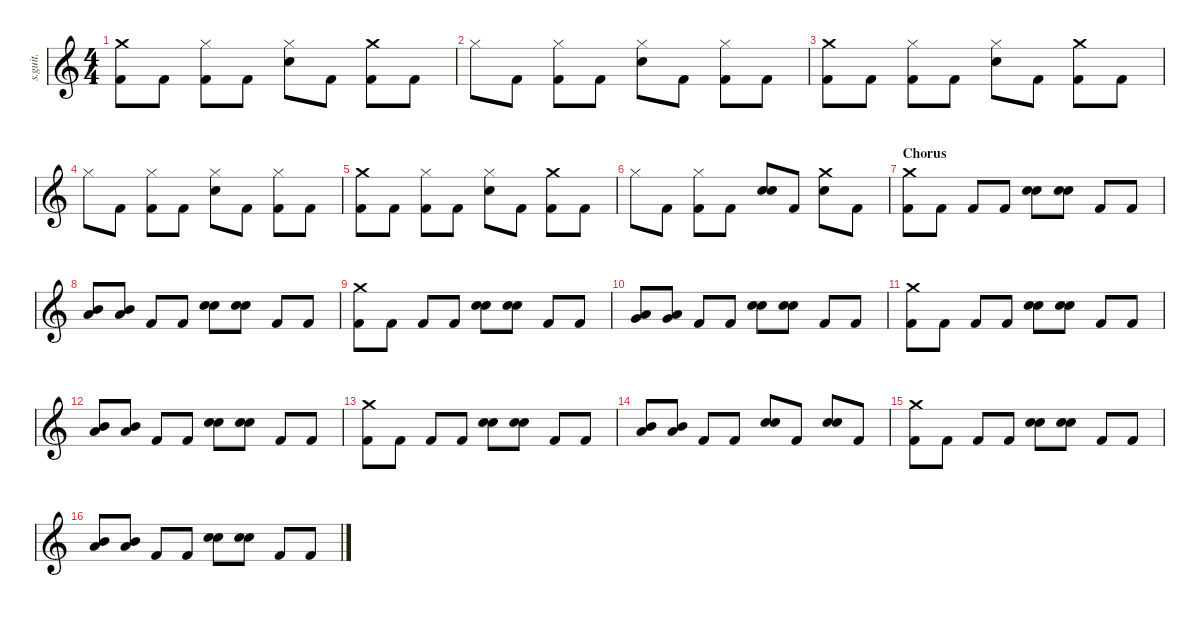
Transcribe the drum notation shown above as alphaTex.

\defaultSystemsLayout 4
\hideDynamics
\bracketExtendMode nobrackets
\track ("Taylor Hawkins" "s.guit.") {instrument percussion}
\staff {score}
\articulation defaults
\ts (4 4)
\tempo (154 hide)
\clef g2
\ks c
("Crash medium (hit)" "Kick (hit) 2").8{lyrics (0 "") lyrics (1 "") lyrics (2 "") lyrics (3 "") lyrics (4 "") dy f} "Kick (hit) 2".8{lyrics (0 "") lyrics (1 "") lyrics (2 "") lyrics (3 "") lyrics (4 "")} ("Hi-Hat (closed)" "Kick (hit) 2").8{lyrics (0 "") lyrics (1 "") lyrics (2 "") lyrics (3 "") lyrics (4 "")} "Kick (hit) 2".8{lyrics (0 "") lyrics (1 "") lyrics (2 "") lyrics (3 "") lyrics (4 "")} ("Hi-Hat (closed)" "Electric Snare (hit)").8{lyrics (0 "") lyrics (1 "") lyrics (2 "") lyrics (3 "") lyrics (4 "")} "Kick (hit) 2".8{lyrics (0 "") lyrics (1 "") lyrics (2 "") lyrics (3 "") lyrics (4 "")} ("Crash medium (hit)" "Kick (hit) 2").8{lyrics (0 "") lyrics (1 "") lyrics (2 "") lyrics (3 "") lyrics (4 "")} "Kick (hit) 2".8{lyrics (0 "") lyrics (1 "") lyrics (2 "") lyrics (3 "") lyrics (4 "")} |
"Hi-Hat (closed)".8{lyrics (0 "") lyrics (1 "") lyrics (2 "") lyrics (3 "") lyrics (4 "")} "Kick (hit) 2".8{lyrics (0 "") lyrics (1 "") lyrics (2 "") lyrics (3 "") lyrics (4 "")} ("Hi-Hat (closed)" "Kick (hit) 2").8{lyrics (0 "") lyrics (1 "") lyrics (2 "") lyrics (3 "") lyrics (4 "")} "Kick (hit) 2".8{lyrics (0 "") lyrics (1 "") lyrics (2 "") lyrics (3 "") lyrics (4 "")} ("Hi-Hat (closed)" "Electric Snare (hit)").8{lyrics (0 "") lyrics (1 "") lyrics (2 "") lyrics (3 "") lyrics (4 "")} "Kick (hit) 2".8{lyrics (0 "") lyrics (1 "") lyrics (2 "") lyrics (3 "") lyrics (4 "")} ("Hi-Hat (closed)" "Kick (hit) 2").8{lyrics (0 "") lyrics (1 "") lyrics (2 "") lyrics (3 "") lyrics (4 "")} "Kick (hit) 2".8{lyrics (0 "") lyrics (1 "") lyrics (2 "") lyrics (3 "") lyrics (4 "")} |
("Crash medium (hit)" "Kick (hit) 2").8{lyrics (0 "") lyrics (1 "") lyrics (2 "") lyrics (3 "") lyrics (4 "")} "Kick (hit) 2".8{lyrics (0 "") lyrics (1 "") lyrics (2 "") lyrics (3 "") lyrics (4 "")} ("Hi-Hat (closed)" "Kick (hit) 2").8{lyrics (0 "") lyrics (1 "") lyrics (2 "") lyrics (3 "") lyrics (4 "")} "Kick (hit) 2".8{lyrics (0 "") lyrics (1 "") lyrics (2 "") lyrics (3 "") lyrics (4 "")} ("Hi-Hat (closed)" "Electric Snare (hit)").8{lyrics (0 "") lyrics (1 "") lyrics (2 "") lyrics (3 "") lyrics (4 "")} "Kick (hit) 2".8{lyrics (0 "") lyrics (1 "") lyrics (2 "") lyrics (3 "") lyrics (4 "")} ("Crash medium (hit)" "Kick (hit) 2").8{lyrics (0 "") lyrics (1 "") lyrics (2 "") lyrics (3 "") lyrics (4 "")} "Kick (hit) 2".8{lyrics (0 "") lyrics (1 "") lyrics (2 "") lyrics (3 "") lyrics (4 "")} |
"Hi-Hat (closed)".8{lyrics (0 "") lyrics (1 "") lyrics (2 "") lyrics (3 "") lyrics (4 "")} "Kick (hit) 2".8{lyrics (0 "") lyrics (1 "") lyrics (2 "") lyrics (3 "") lyrics (4 "")} ("Hi-Hat (closed)" "Kick (hit) 2").8{lyrics (0 "") lyrics (1 "") lyrics (2 "") lyrics (3 "") lyrics (4 "")} "Kick (hit) 2".8{lyrics (0 "") lyrics (1 "") lyrics (2 "") lyrics (3 "") lyrics (4 "")} ("Hi-Hat (closed)" "Electric Snare (hit)").8{lyrics (0 "") lyrics (1 "") lyrics (2 "") lyrics (3 "") lyrics (4 "")} "Kick (hit) 2".8{lyrics (0 "") lyrics (1 "") lyrics (2 "") lyrics (3 "") lyrics (4 "")} ("Hi-Hat (closed)" "Kick (hit) 2").8{lyrics (0 "") lyrics (1 "") lyrics (2 "") lyrics (3 "") lyrics (4 "")} "Kick (hit) 2".8{lyrics (0 "") lyrics (1 "") lyrics (2 "") lyrics (3 "") lyrics (4 "")} |
("Crash medium (hit)" "Kick (hit) 2").8{lyrics (0 "") lyrics (1 "") lyrics (2 "") lyrics (3 "") lyrics (4 "")} "Kick (hit) 2".8{lyrics (0 "") lyrics (1 "") lyrics (2 "") lyrics (3 "") lyrics (4 "")} ("Hi-Hat (closed)" "Kick (hit) 2").8{lyrics (0 "") lyrics (1 "") lyrics (2 "") lyrics (3 "") lyrics (4 "")} "Kick (hit) 2".8{lyrics (0 "") lyrics (1 "") lyrics (2 "") lyrics (3 "") lyrics (4 "")} ("Hi-Hat (closed)" "Electric Snare (hit)").8{lyrics (0 "") lyrics (1 "") lyrics (2 "") lyrics (3 "") lyrics (4 "")} "Kick (hit) 2".8{lyrics (0 "") lyrics (1 "") lyrics (2 "") lyrics (3 "") lyrics (4 "")} ("Crash medium (hit)" "Kick (hit) 2").8{lyrics (0 "") lyrics (1 "") lyrics (2 "") lyrics (3 "") lyrics (4 "")} "Kick (hit) 2".8{lyrics (0 "") lyrics (1 "") lyrics (2 "") lyrics (3 "") lyrics (4 "")} |
"Hi-Hat (closed)".8{lyrics (0 "") lyrics (1 "") lyrics (2 "") lyrics (3 "") lyrics (4 "")} "Kick (hit) 2".8{lyrics (0 "") lyrics (1 "") lyrics (2 "") lyrics (3 "") lyrics (4 "")} ("Hi-Hat (closed)" "Kick (hit) 2").8{lyrics (0 "") lyrics (1 "") lyrics (2 "") lyrics (3 "") lyrics (4 "")} "Kick (hit) 2".8{lyrics (0 "") lyrics (1 "") lyrics (2 "") lyrics (3 "") lyrics (4 "")} ("Snare (hit) 2" "Electric Snare (hit)").8{lyrics (0 "") lyrics (1 "") lyrics (2 "") lyrics (3 "") lyrics (4 "")} "Kick (hit) 2".8{lyrics (0 "") lyrics (1 "") lyrics (2 "") lyrics (3 "") lyrics (4 "")} ("Crash medium (hit)" "Electric Snare (hit)").8{lyrics (0 "") lyrics (1 "") lyrics (2 "") lyrics (3 "") lyrics (4 "")} "Kick (hit) 2".8{lyrics (0 "") lyrics (1 "") lyrics (2 "") lyrics (3 "") lyrics (4 "")} |
\section ("" "Chorus")
("Crash medium (hit)" "Kick (hit) 2").8{lyrics (0 "") lyrics (1 "") lyrics (2 "") lyrics (3 "") lyrics (4 "")} "Kick (hit) 2".8{lyrics (0 "") lyrics (1 "") lyrics (2 "") lyrics (3 "") lyrics (4 "")} "Kick (hit) 2".8{lyrics (0 "") lyrics (1 "") lyrics (2 "") lyrics (3 "") lyrics (4 "")} "Kick (hit) 2".8{lyrics (0 "") lyrics (1 "") lyrics (2 "") lyrics (3 "") lyrics (4 "")} ("Snare (hit) 2" "Electric Snare (hit)").8{lyrics (0 "") lyrics (1 "") lyrics (2 "") lyrics (3 "") lyrics (4 "")} ("Snare (hit) 2" "Electric Snare (hit)").8{lyrics (0 "") lyrics (1 "") lyrics (2 "") lyrics (3 "") lyrics (4 "")} "Kick (hit) 2".8{lyrics (0 "") lyrics (1 "") lyrics (2 "") lyrics (3 "") lyrics (4 "")} "Kick (hit) 2".8{lyrics (0 "") lyrics (1 "") lyrics (2 "") lyrics (3 "") lyrics (4 "")} |
("Low Floor Tom (hit)" "Mid Tom (hit)").8{lyrics (0 "") lyrics (1 "") lyrics (2 "") lyrics (3 "") lyrics (4 "")} ("Low Floor Tom (hit)" "Mid Tom (hit)").8{lyrics (0 "") lyrics (1 "") lyrics (2 "") lyrics (3 "") lyrics (4 "")} "Kick (hit) 2".8{lyrics (0 "") lyrics (1 "") lyrics (2 "") lyrics (3 "") lyrics (4 "")} "Kick (hit) 2".8{lyrics (0 "") lyrics (1 "") lyrics (2 "") lyrics (3 "") lyrics (4 "")} ("Snare (hit) 2" "Electric Snare (hit)").8{lyrics (0 "") lyrics (1 "") lyrics (2 "") lyrics (3 "") lyrics (4 "")} ("Snare (hit) 2" "Electric Snare (hit)").8{lyrics (0 "") lyrics (1 "") lyrics (2 "") lyrics (3 "") lyrics (4 "")} "Kick (hit) 2".8{lyrics (0 "") lyrics (1 "") lyrics (2 "") lyrics (3 "") lyrics (4 "")} "Kick (hit) 2".8{lyrics (0 "") lyrics (1 "") lyrics (2 "") lyrics (3 "") lyrics (4 "")} |
("Crash medium (hit)" "Kick (hit) 2").8{lyrics (0 "") lyrics (1 "") lyrics (2 "") lyrics (3 "") lyrics (4 "")} "Kick (hit) 2".8{lyrics (0 "") lyrics (1 "") lyrics (2 "") lyrics (3 "") lyrics (4 "")} "Kick (hit) 2".8{lyrics (0 "") lyrics (1 "") lyrics (2 "") lyrics (3 "") lyrics (4 "")} "Kick (hit) 2".8{lyrics (0 "") lyrics (1 "") lyrics (2 "") lyrics (3 "") lyrics (4 "")} ("Snare (hit) 2" "Electric Snare (hit)").8{lyrics (0 "") lyrics (1 "") lyrics (2 "") lyrics (3 "") lyrics (4 "")} ("Snare (hit) 2" "Electric Snare (hit)").8{lyrics (0 "") lyrics (1 "") lyrics (2 "") lyrics (3 "") lyrics (4 "")} "Kick (hit) 2".8{lyrics (0 "") lyrics (1 "") lyrics (2 "") lyrics (3 "") lyrics (4 "")} "Kick (hit) 2".8{lyrics (0 "") lyrics (1 "") lyrics (2 "") lyrics (3 "") lyrics (4 "")} |
("Very Low Tom (hit)" "Low Tom (hit)").8{lyrics (0 "") lyrics (1 "") lyrics (2 "") lyrics (3 "") lyrics (4 "")} ("Very Low Tom (hit)" "Low Tom (hit)").8{lyrics (0 "") lyrics (1 "") lyrics (2 "") lyrics (3 "") lyrics (4 "")} "Kick (hit) 2".8{lyrics (0 "") lyrics (1 "") lyrics (2 "") lyrics (3 "") lyrics (4 "")} "Kick (hit) 2".8{lyrics (0 "") lyrics (1 "") lyrics (2 "") lyrics (3 "") lyrics (4 "")} ("Snare (hit) 2" "Electric Snare (hit)").8{lyrics (0 "") lyrics (1 "") lyrics (2 "") lyrics (3 "") lyrics (4 "")} ("Snare (hit) 2" "Electric Snare (hit)").8{lyrics (0 "") lyrics (1 "") lyrics (2 "") lyrics (3 "") lyrics (4 "")} "Kick (hit) 2".8{lyrics (0 "") lyrics (1 "") lyrics (2 "") lyrics (3 "") lyrics (4 "")} "Kick (hit) 2".8{lyrics (0 "") lyrics (1 "") lyrics (2 "") lyrics (3 "") lyrics (4 "")} |
("Crash medium (hit)" "Kick (hit) 2").8{lyrics (0 "") lyrics (1 "") lyrics (2 "") lyrics (3 "") lyrics (4 "")} "Kick (hit) 2".8{lyrics (0 "") lyrics (1 "") lyrics (2 "") lyrics (3 "") lyrics (4 "")} "Kick (hit) 2".8{lyrics (0 "") lyrics (1 "") lyrics (2 "") lyrics (3 "") lyrics (4 "")} "Kick (hit) 2".8{lyrics (0 "") lyrics (1 "") lyrics (2 "") lyrics (3 "") lyrics (4 "")} ("Snare (hit) 2" "Electric Snare (hit)").8{lyrics (0 "") lyrics (1 "") lyrics (2 "") lyrics (3 "") lyrics (4 "")} ("Snare (hit) 2" "Electric Snare (hit)").8{lyrics (0 "") lyrics (1 "") lyrics (2 "") lyrics (3 "") lyrics (4 "")} "Kick (hit) 2".8{lyrics (0 "") lyrics (1 "") lyrics (2 "") lyrics (3 "") lyrics (4 "")} "Kick (hit) 2".8{lyrics (0 "") lyrics (1 "") lyrics (2 "") lyrics (3 "") lyrics (4 "")} |
("Low Floor Tom (hit)" "Mid Tom (hit)").8{lyrics (0 "") lyrics (1 "") lyrics (2 "") lyrics (3 "") lyrics (4 "")} ("Low Floor Tom (hit)" "Mid Tom (hit)").8{lyrics (0 "") lyrics (1 "") lyrics (2 "") lyrics (3 "") lyrics (4 "")} "Kick (hit) 2".8{lyrics (0 "") lyrics (1 "") lyrics (2 "") lyrics (3 "") lyrics (4 "")} "Kick (hit) 2".8{lyrics (0 "") lyrics (1 "") lyrics (2 "") lyrics (3 "") lyrics (4 "")} ("Snare (hit) 2" "Electric Snare (hit)").8{lyrics (0 "") lyrics (1 "") lyrics (2 "") lyrics (3 "") lyrics (4 "")} ("Snare (hit) 2" "Electric Snare (hit)").8{lyrics (0 "") lyrics (1 "") lyrics (2 "") lyrics (3 "") lyrics (4 "")} "Kick (hit) 2".8{lyrics (0 "") lyrics (1 "") lyrics (2 "") lyrics (3 "") lyrics (4 "")} "Kick (hit) 2".8{lyrics (0 "") lyrics (1 "") lyrics (2 "") lyrics (3 "") lyrics (4 "")} |
("Crash medium (hit)" "Kick (hit) 2").8{lyrics (0 "") lyrics (1 "") lyrics (2 "") lyrics (3 "") lyrics (4 "")} "Kick (hit) 2".8{lyrics (0 "") lyrics (1 "") lyrics (2 "") lyrics (3 "") lyrics (4 "")} "Kick (hit) 2".8{lyrics (0 "") lyrics (1 "") lyrics (2 "") lyrics (3 "") lyrics (4 "")} "Kick (hit) 2".8{lyrics (0 "") lyrics (1 "") lyrics (2 "") lyrics (3 "") lyrics (4 "")} ("Snare (hit) 2" "Electric Snare (hit)").8{lyrics (0 "") lyrics (1 "") lyrics (2 "") lyrics (3 "") lyrics (4 "")} ("Snare (hit) 2" "Electric Snare (hit)").8{lyrics (0 "") lyrics (1 "") lyrics (2 "") lyrics (3 "") lyrics (4 "")} "Kick (hit) 2".8{lyrics (0 "") lyrics (1 "") lyrics (2 "") lyrics (3 "") lyrics (4 "")} "Kick (hit) 2".8{lyrics (0 "") lyrics (1 "") lyrics (2 "") lyrics (3 "") lyrics (4 "")} |
("Mid Tom (hit)" "Low Tom (hit)").8{lyrics (0 "") lyrics (1 "") lyrics (2 "") lyrics (3 "") lyrics (4 "")} ("Mid Tom (hit)" "Low Tom (hit)").8{lyrics (0 "") lyrics (1 "") lyrics (2 "") lyrics (3 "") lyrics (4 "")} "Kick (hit) 2".8{lyrics (0 "") lyrics (1 "") lyrics (2 "") lyrics (3 "") lyrics (4 "")} "Kick (hit) 2".8{lyrics (0 "") lyrics (1 "") lyrics (2 "") lyrics (3 "") lyrics (4 "")} ("Snare (hit) 2" "Electric Snare (hit)").8{lyrics (0 "") lyrics (1 "") lyrics (2 "") lyrics (3 "") lyrics (4 "")} "Kick (hit) 2".8{lyrics (0 "") lyrics (1 "") lyrics (2 "") lyrics (3 "") lyrics (4 "")} ("Snare (hit) 2" "Electric Snare (hit)").8{lyrics (0 "") lyrics (1 "") lyrics (2 "") lyrics (3 "") lyrics (4 "")} "Kick (hit) 2".8{lyrics (0 "") lyrics (1 "") lyrics (2 "") lyrics (3 "") lyrics (4 "")} |
("Crash medium (hit)" "Kick (hit) 2").8{lyrics (0 "") lyrics (1 "") lyrics (2 "") lyrics (3 "") lyrics (4 "")} "Kick (hit) 2".8{lyrics (0 "") lyrics (1 "") lyrics (2 "") lyrics (3 "") lyrics (4 "")} "Kick (hit) 2".8{lyrics (0 "") lyrics (1 "") lyrics (2 "") lyrics (3 "") lyrics (4 "")} "Kick (hit) 2".8{lyrics (0 "") lyrics (1 "") lyrics (2 "") lyrics (3 "") lyrics (4 "")} ("Snare (hit) 2" "Electric Snare (hit)").8{lyrics (0 "") lyrics (1 "") lyrics (2 "") lyrics (3 "") lyrics (4 "")} ("Snare (hit) 2" "Electric Snare (hit)").8{lyrics (0 "") lyrics (1 "") lyrics (2 "") lyrics (3 "") lyrics (4 "")} "Kick (hit) 2".8{lyrics (0 "") lyrics (1 "") lyrics (2 "") lyrics (3 "") lyrics (4 "")} "Kick (hit) 2".8{lyrics (0 "") lyrics (1 "") lyrics (2 "") lyrics (3 "") lyrics (4 "")} |
("Low Floor Tom (hit)" "Mid Tom (hit)").8{lyrics (0 "") lyrics (1 "") lyrics (2 "") lyrics (3 "") lyrics (4 "")} ("Low Floor Tom (hit)" "Mid Tom (hit)").8{lyrics (0 "") lyrics (1 "") lyrics (2 "") lyrics (3 "") lyrics (4 "")} "Kick (hit) 2".8{lyrics (0 "") lyrics (1 "") lyrics (2 "") lyrics (3 "") lyrics (4 "")} "Kick (hit) 2".8{lyrics (0 "") lyrics (1 "") lyrics (2 "") lyrics (3 "") lyrics (4 "")} ("Snare (hit) 2" "Electric Snare (hit)").8{lyrics (0 "") lyrics (1 "") lyrics (2 "") lyrics (3 "") lyrics (4 "")} ("Snare (hit) 2" "Electric Snare (hit)").8{lyrics (0 "") lyrics (1 "") lyrics (2 "") lyrics (3 "") lyrics (4 "")} "Kick (hit) 2".8{lyrics (0 "") lyrics (1 "") lyrics (2 "") lyrics (3 "") lyrics (4 "")} "Kick (hit) 2".8{lyrics (0 "") lyrics (1 "") lyrics (2 "") lyrics (3 "") lyrics (4 "")}
